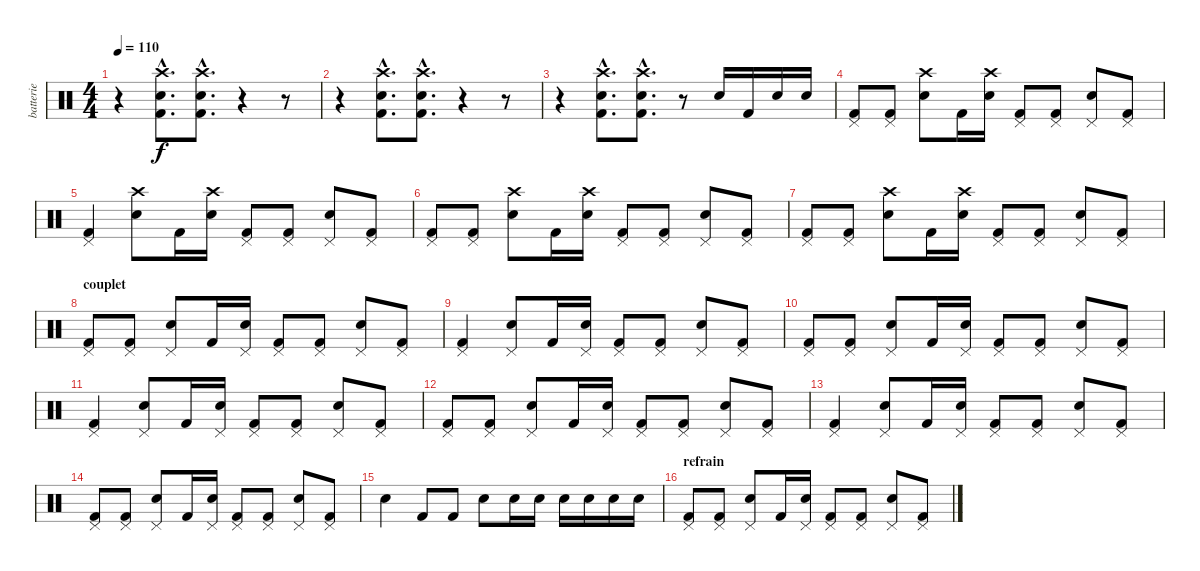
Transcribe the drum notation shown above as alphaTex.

\track ("batterie" "batterie") {instrument percussion}
\staff {score}
\articulation defaults
\ts (4 4)
\tempo 110
\clef neutral
\ks c
r.4{dy f} ("Crash high (hit)"{hac} "Snare (hit) 2"{hac} "Kick (hit) 2"{hac}).8{d} ("Crash high (hit)"{hac} "Snare (hit) 2"{hac} "Kick (hit) 2"{hac}).8{d} r.4 r.8 |
r.4 ("Crash high (hit)"{hac} "Snare (hit) 2"{hac} "Kick (hit) 2"{hac}).8{d} ("Crash high (hit)"{hac} "Snare (hit) 2"{hac} "Kick (hit) 2"{hac}).8{d} r.4 r.8 |
r.4 ("Crash high (hit)"{hac} "Snare (hit) 2"{hac} "Kick (hit) 2"{hac}).8{d} ("Crash high (hit)"{hac} "Snare (hit) 2"{hac} "Kick (hit) 2"{hac}).8{d} r.8 "Snare (hit) 2".16 "Kick (hit) 2".16 "Snare (hit) 2".16 "Snare (hit) 2".16 |
("Pedal Hi-Hat (hit)" "Kick (hit) 2").8 ("Pedal Hi-Hat (hit)" "Kick (hit) 2").8 ("Crash high (hit)" "Snare (hit) 2").8 "Kick (hit) 2".16 ("Crash high (hit)" "Snare (hit) 2").16 ("Pedal Hi-Hat (hit)" "Kick (hit) 2").8 ("Pedal Hi-Hat (hit)" "Kick (hit) 2").8 ("Pedal Hi-Hat (hit)" "Snare (hit) 2").8 ("Pedal Hi-Hat (hit)" "Kick (hit) 2").8 |
("Pedal Hi-Hat (hit)" "Kick (hit) 2").4 ("Crash high (hit)" "Snare (hit) 2").8 "Kick (hit) 2".16 ("Crash high (hit)" "Snare (hit) 2").16 ("Pedal Hi-Hat (hit)" "Kick (hit) 2").8 ("Pedal Hi-Hat (hit)" "Kick (hit) 2").8 ("Pedal Hi-Hat (hit)" "Snare (hit) 2").8 ("Pedal Hi-Hat (hit)" "Kick (hit) 2").8 |
("Pedal Hi-Hat (hit)" "Kick (hit) 2").8 ("Pedal Hi-Hat (hit)" "Kick (hit) 2").8 ("Crash high (hit)" "Snare (hit) 2").8 "Kick (hit) 2".16 ("Crash high (hit)" "Snare (hit) 2").16 ("Pedal Hi-Hat (hit)" "Kick (hit) 2").8 ("Pedal Hi-Hat (hit)" "Kick (hit) 2").8 ("Pedal Hi-Hat (hit)" "Snare (hit) 2").8 ("Pedal Hi-Hat (hit)" "Kick (hit) 2").8 |
("Pedal Hi-Hat (hit)" "Kick (hit) 2").8 ("Pedal Hi-Hat (hit)" "Kick (hit) 2").8 ("Crash high (hit)" "Snare (hit) 2").8 "Kick (hit) 2".16 ("Crash high (hit)" "Snare (hit) 2").16 ("Pedal Hi-Hat (hit)" "Kick (hit) 2").8 ("Pedal Hi-Hat (hit)" "Kick (hit) 2").8 ("Pedal Hi-Hat (hit)" "Snare (hit) 2").8 ("Pedal Hi-Hat (hit)" "Kick (hit) 2").8 |
\section ("" "couplet")
("Pedal Hi-Hat (hit)" "Kick (hit) 2").8 ("Pedal Hi-Hat (hit)" "Kick (hit) 2").8 ("Pedal Hi-Hat (hit)" "Snare (hit) 2").8 "Kick (hit) 2".16 ("Pedal Hi-Hat (hit)" "Snare (hit) 2").16 ("Pedal Hi-Hat (hit)" "Kick (hit) 2").8 ("Pedal Hi-Hat (hit)" "Kick (hit) 2").8 ("Pedal Hi-Hat (hit)" "Snare (hit) 2").8 ("Pedal Hi-Hat (hit)" "Kick (hit) 2").8 |
("Pedal Hi-Hat (hit)" "Kick (hit) 2").4 ("Pedal Hi-Hat (hit)" "Snare (hit) 2").8 "Kick (hit) 2".16 ("Pedal Hi-Hat (hit)" "Snare (hit) 2").16 ("Pedal Hi-Hat (hit)" "Kick (hit) 2").8 ("Pedal Hi-Hat (hit)" "Kick (hit) 2").8 ("Pedal Hi-Hat (hit)" "Snare (hit) 2").8 ("Pedal Hi-Hat (hit)" "Kick (hit) 2").8 |
("Pedal Hi-Hat (hit)" "Kick (hit) 2").8 ("Pedal Hi-Hat (hit)" "Kick (hit) 2").8 ("Pedal Hi-Hat (hit)" "Snare (hit) 2").8 "Kick (hit) 2".16 ("Pedal Hi-Hat (hit)" "Snare (hit) 2").16 ("Pedal Hi-Hat (hit)" "Kick (hit) 2").8 ("Pedal Hi-Hat (hit)" "Kick (hit) 2").8 ("Pedal Hi-Hat (hit)" "Snare (hit) 2").8 ("Pedal Hi-Hat (hit)" "Kick (hit) 2").8 |
("Pedal Hi-Hat (hit)" "Kick (hit) 2").4 ("Pedal Hi-Hat (hit)" "Snare (hit) 2").8 "Kick (hit) 2".16 ("Pedal Hi-Hat (hit)" "Snare (hit) 2").16 ("Pedal Hi-Hat (hit)" "Kick (hit) 2").8 ("Pedal Hi-Hat (hit)" "Kick (hit) 2").8 ("Pedal Hi-Hat (hit)" "Snare (hit) 2").8 ("Pedal Hi-Hat (hit)" "Kick (hit) 2").8 |
("Pedal Hi-Hat (hit)" "Kick (hit) 2").8 ("Pedal Hi-Hat (hit)" "Kick (hit) 2").8 ("Pedal Hi-Hat (hit)" "Snare (hit) 2").8 "Kick (hit) 2".16 ("Pedal Hi-Hat (hit)" "Snare (hit) 2").16 ("Pedal Hi-Hat (hit)" "Kick (hit) 2").8 ("Pedal Hi-Hat (hit)" "Kick (hit) 2").8 ("Pedal Hi-Hat (hit)" "Snare (hit) 2").8 ("Pedal Hi-Hat (hit)" "Kick (hit) 2").8 |
("Pedal Hi-Hat (hit)" "Kick (hit) 2").4 ("Pedal Hi-Hat (hit)" "Snare (hit) 2").8 "Kick (hit) 2".16 ("Pedal Hi-Hat (hit)" "Snare (hit) 2").16 ("Pedal Hi-Hat (hit)" "Kick (hit) 2").8 ("Pedal Hi-Hat (hit)" "Kick (hit) 2").8 ("Pedal Hi-Hat (hit)" "Snare (hit) 2").8 ("Pedal Hi-Hat (hit)" "Kick (hit) 2").8 |
("Pedal Hi-Hat (hit)" "Kick (hit) 2").8 ("Pedal Hi-Hat (hit)" "Kick (hit) 2").8 ("Pedal Hi-Hat (hit)" "Snare (hit) 2").8 "Kick (hit) 2".16 ("Pedal Hi-Hat (hit)" "Snare (hit) 2").16 ("Pedal Hi-Hat (hit)" "Kick (hit) 2").8 ("Pedal Hi-Hat (hit)" "Kick (hit) 2").8 ("Pedal Hi-Hat (hit)" "Snare (hit) 2").8 ("Pedal Hi-Hat (hit)" "Kick (hit) 2").8 |
"Snare (hit) 2".4 "Kick (hit) 2".8 "Kick (hit) 2".8 "Snare (hit) 2".8 "Snare (hit) 2".16 "Snare (hit) 2".16 "Snare (hit) 2".16 "Snare (hit) 2".16 "Snare (hit) 2".16 "Snare (hit) 2".16 |
\section ("" "refrain")
("Pedal Hi-Hat (hit)" "Kick (hit) 2").8 ("Pedal Hi-Hat (hit)" "Kick (hit) 2").8 ("Pedal Hi-Hat (hit)" "Snare (hit) 2").8 "Kick (hit) 2".16 ("Pedal Hi-Hat (hit)" "Snare (hit) 2").16 ("Pedal Hi-Hat (hit)" "Kick (hit) 2").8 ("Pedal Hi-Hat (hit)" "Kick (hit) 2").8 ("Pedal Hi-Hat (hit)" "Snare (hit) 2").8 ("Pedal Hi-Hat (hit)" "Kick (hit) 2").8
